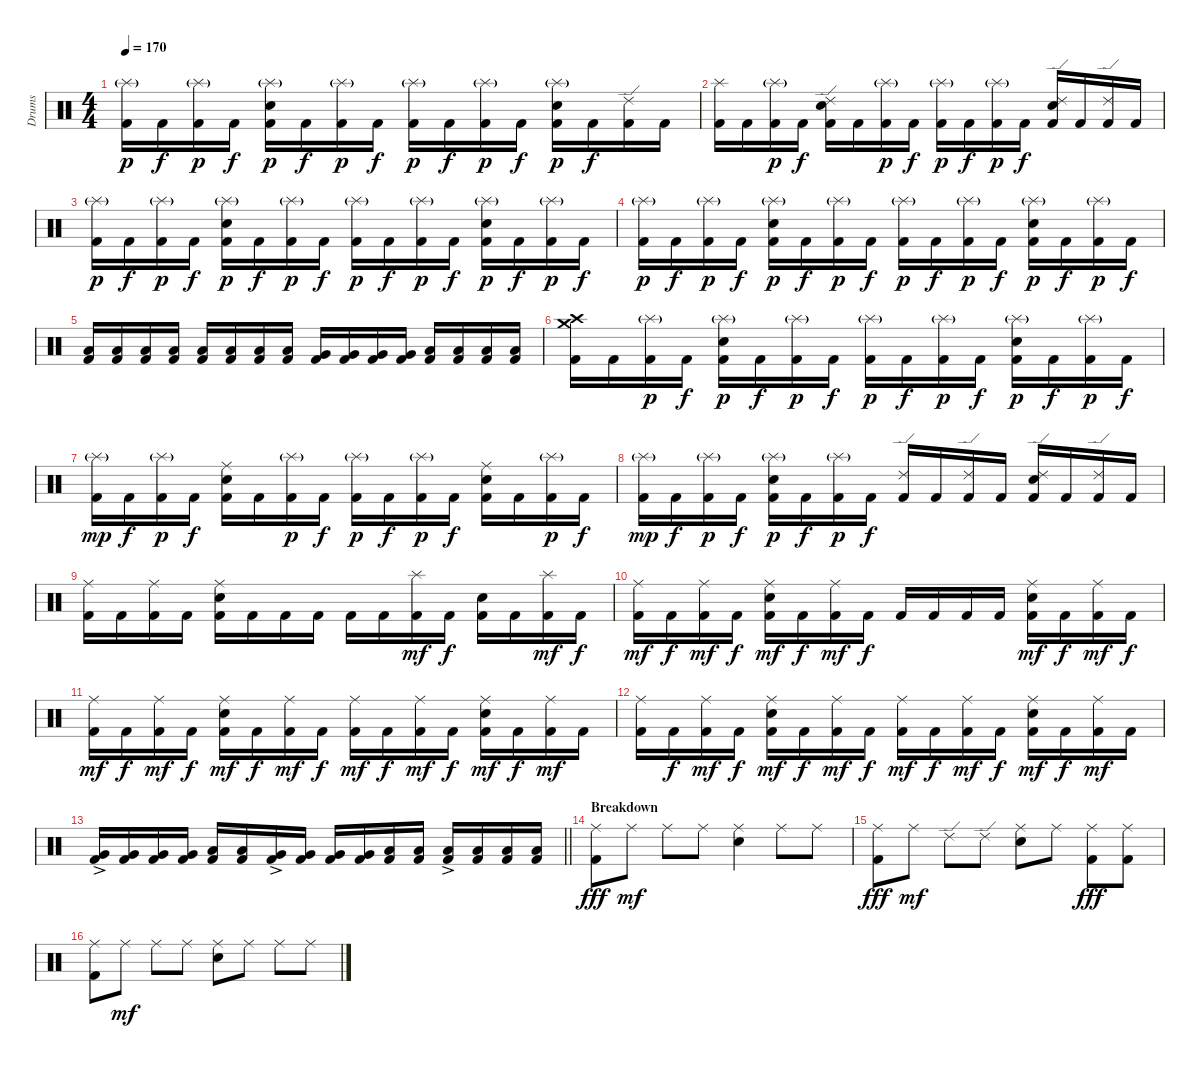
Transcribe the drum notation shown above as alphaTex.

\track ("Drums" "Drums") {instrument percussion}
\staff {score}
\articulation defaults
\ts (4 4)
\tempo 170
\clef neutral
\ks c
("Splash (hit)"{g} "Kick (hit) 2").16{dy p} "Kick (hit) 2".16{dy f} ("Splash (hit)"{g} "Kick (hit) 2").16{dy p} "Kick (hit) 2".16{dy f} ("Splash (hit)"{g} "Snare (hit) 2" "Kick (hit) 2").16{dy p} "Kick (hit) 2".16{dy f} ("Splash (hit)"{g} "Kick (hit) 2").16{dy p} "Kick (hit) 2".16{dy f} ("Splash (hit)"{g} "Kick (hit) 2").16{dy p} "Kick (hit) 2".16{dy f} ("Splash (hit)"{g} "Kick (hit) 2").16{dy p} "Kick (hit) 2".16{dy f} ("Splash (hit)"{g} "Snare (hit) 2" "Kick (hit) 2").16{dy p} "Kick (hit) 2".16{dy f} ("Ride (edge) 2" "Kick (hit) 2").16 "Kick (hit) 2".16 |
("Splash (hit)" "Kick (hit) 2").16 "Kick (hit) 2".16 ("Splash (hit)"{g} "Kick (hit) 2").16{dy p} "Kick (hit) 2".16{dy f} ("Ride (edge) 2" "Snare (hit) 2" "Kick (hit) 2").16 "Kick (hit) 2".16 ("Splash (hit)"{g} "Kick (hit) 2").16{dy p} "Kick (hit) 2".16{dy f} ("Splash (hit)"{g} "Kick (hit) 2").16{dy p} "Kick (hit) 2".16{dy f} ("Splash (hit)"{g} "Kick (hit) 2").16{dy p} "Kick (hit) 2".16{dy f} ("Ride (edge) 2" "Snare (hit) 2" "Kick (hit) 2").16 "Kick (hit) 2".16 ("Ride (edge) 2" "Kick (hit) 2").16 "Kick (hit) 2".16 |
("Splash (hit)"{g} "Kick (hit) 2").16{dy p} "Kick (hit) 2".16{dy f} ("Splash (hit)"{g} "Kick (hit) 2").16{dy p} "Kick (hit) 2".16{dy f} ("Splash (hit)"{g} "Snare (hit) 2" "Kick (hit) 2").16{dy p} "Kick (hit) 2".16{dy f} ("Splash (hit)"{g} "Kick (hit) 2").16{dy p} "Kick (hit) 2".16{dy f} ("Splash (hit)"{g} "Kick (hit) 2").16{dy p} "Kick (hit) 2".16{dy f} ("Splash (hit)"{g} "Kick (hit) 2").16{dy p} "Kick (hit) 2".16{dy f} ("Splash (hit)"{g} "Snare (hit) 2" "Kick (hit) 2").16{dy p} "Kick (hit) 2".16{dy f} ("Splash (hit)"{g} "Kick (hit) 2").16{dy p} "Kick (hit) 2".16{dy f} |
("Splash (hit)"{g} "Kick (hit) 2").16{dy p} "Kick (hit) 2".16{dy f} ("Splash (hit)"{g} "Kick (hit) 2").16{dy p} "Kick (hit) 2".16{dy f} ("Splash (hit)"{g} "Snare (hit) 2" "Kick (hit) 2").16{dy p} "Kick (hit) 2".16{dy f} ("Splash (hit)"{g} "Kick (hit) 2").16{dy p} "Kick (hit) 2".16{dy f} ("Splash (hit)"{g} "Kick (hit) 2").16{dy p} "Kick (hit) 2".16{dy f} ("Splash (hit)"{g} "Kick (hit) 2").16{dy p} "Kick (hit) 2".16{dy f} ("Splash (hit)"{g} "Snare (hit) 2" "Kick (hit) 2").16{dy p} "Kick (hit) 2".16{dy f} ("Splash (hit)"{g} "Kick (hit) 2").16{dy p} "Kick (hit) 2".16{dy f} |
("Low Tom (hit)" "Kick (hit) 2").16 ("Low Tom (hit)" "Kick (hit) 2").16 ("Low Tom (hit)" "Kick (hit) 2").16 ("Low Tom (hit)" "Kick (hit) 2").16 ("Low Tom (hit)" "Kick (hit) 2").16 ("Low Tom (hit)" "Kick (hit) 2").16 ("Low Tom (hit)" "Kick (hit) 2").16 ("Low Tom (hit)" "Kick (hit) 2").16 ("Very Low Tom (hit)" "Kick (hit) 2").16 ("Very Low Tom (hit)" "Kick (hit) 2").16 ("Very Low Tom (hit)" "Kick (hit) 2").16 ("Very Low Tom (hit)" "Kick (hit) 2").16 ("Low Floor Tom (hit)" "Kick (hit) 2").16 ("Low Floor Tom (hit)" "Kick (hit) 2").16 ("Low Floor Tom (hit)" "Kick (hit) 2").16 ("Low Floor Tom (hit)" "Kick (hit) 2").16 |
("Crash medium (hit)" "Crash high (hit)" "Kick (hit) 2").16 "Kick (hit) 2".16 ("Splash (hit)"{g} "Kick (hit) 2").16{dy p} "Kick (hit) 2".16{dy f} ("Splash (hit)"{g} "Snare (hit) 2" "Kick (hit) 2").16{dy p} "Kick (hit) 2".16{dy f} ("Splash (hit)"{g} "Kick (hit) 2").16{dy p} "Kick (hit) 2".16{dy f} ("Splash (hit)"{g} "Kick (hit) 2").16{dy p} "Kick (hit) 2".16{dy f} ("Splash (hit)"{g} "Kick (hit) 2").16{dy p} "Kick (hit) 2".16{dy f} ("Splash (hit)"{g} "Snare (hit) 2" "Kick (hit) 2").16{dy p} "Kick (hit) 2".16{dy f} ("Splash (hit)"{g} "Kick (hit) 2").16{dy p} "Kick (hit) 2".16{dy f} |
("Splash (hit)"{g} "Kick (hit) 2").16{dy mp} "Kick (hit) 2".16{dy f} ("Splash (hit)"{g} "Kick (hit) 2").16{dy p} "Kick (hit) 2".16{dy f} ("Ride (middle)" "Snare (hit) 2" "Kick (hit) 2").16 "Kick (hit) 2".16 ("Splash (hit)"{g} "Kick (hit) 2").16{dy p} "Kick (hit) 2".16{dy f} ("Splash (hit)"{g} "Kick (hit) 2").16{dy p} "Kick (hit) 2".16{dy f} ("Splash (hit)"{g} "Kick (hit) 2").16{dy p} "Kick (hit) 2".16{dy f} ("Ride (middle)" "Snare (hit) 2" "Kick (hit) 2").16 "Kick (hit) 2".16 ("Splash (hit)"{g} "Kick (hit) 2").16{dy p} "Kick (hit) 2".16{dy f} |
("Splash (hit)"{g} "Kick (hit) 2").16{dy mp} "Kick (hit) 2".16{dy f} ("Splash (hit)"{g} "Kick (hit) 2").16{dy p} "Kick (hit) 2".16{dy f} ("Splash (hit)"{g} "Snare (hit) 2" "Kick (hit) 2").16{dy p} "Kick (hit) 2".16{dy f} ("Splash (hit)"{g} "Kick (hit) 2").16{dy p} "Kick (hit) 2".16{dy f} ("Ride (edge) 2" "Kick (hit) 2").16 "Kick (hit) 2".16 ("Ride (edge) 2" "Kick (hit) 2").16 "Kick (hit) 2".16 ("Ride (edge) 2" "Snare (hit) 2" "Kick (hit) 2").16 "Kick (hit) 2".16 ("Ride (edge) 2" "Kick (hit) 2").16 "Kick (hit) 2".16 |
("Ride (middle)" "Kick (hit) 2").16 "Kick (hit) 2".16 ("Ride (middle)" "Kick (hit) 2").16 "Kick (hit) 2".16 ("Ride (middle)" "Snare (hit) 2" "Kick (hit) 2").16 "Kick (hit) 2".16 "Kick (hit) 2".16 "Kick (hit) 2".16 "Kick (hit) 2".16 "Kick (hit) 2".16 ("Splash (hit)" "Kick (hit) 2").16{dy mf} "Kick (hit) 2".16{dy f} ("Snare (hit) 2" "Kick (hit) 2").16 "Kick (hit) 2".16 ("Splash (hit)" "Kick (hit) 2").16{dy mf} "Kick (hit) 2".16{dy f} |
("Ride (middle)" "Kick (hit) 2").16{dy mf} "Kick (hit) 2".16{dy f} ("Ride (middle)" "Kick (hit) 2").16{dy mf} "Kick (hit) 2".16{dy f} ("Ride (middle)" "Snare (hit) 2" "Kick (hit) 2").16{dy mf} "Kick (hit) 2".16{dy f} ("Ride (middle)" "Kick (hit) 2").16{dy mf} "Kick (hit) 2".16{dy f} "Kick (hit) 2".16 "Kick (hit) 2".16 "Kick (hit) 2".16 "Kick (hit) 2".16 ("Ride (middle)" "Snare (hit) 2" "Kick (hit) 2").16{dy mf} "Kick (hit) 2".16{dy f} ("Ride (middle)" "Kick (hit) 2").16{dy mf} "Kick (hit) 2".16{dy f} |
("Ride (middle)" "Kick (hit) 2").16{dy mf} "Kick (hit) 2".16{dy f} ("Ride (middle)" "Kick (hit) 2").16{dy mf} "Kick (hit) 2".16{dy f} ("Ride (middle)" "Snare (hit) 2" "Kick (hit) 2").16{dy mf} "Kick (hit) 2".16{dy f} ("Ride (middle)" "Kick (hit) 2").16{dy mf} "Kick (hit) 2".16{dy f} ("Ride (middle)" "Kick (hit) 2").16{dy mf} "Kick (hit) 2".16{dy f} ("Ride (middle)" "Kick (hit) 2").16{dy mf} "Kick (hit) 2".16{dy f} ("Ride (middle)" "Snare (hit) 2" "Kick (hit) 2").16{dy mf} "Kick (hit) 2".16{dy f} ("Ride (middle)" "Kick (hit) 2").16{dy mf} "Kick (hit) 2".16 |
("Ride (middle)" "Kick (hit) 2").16 "Kick (hit) 2".16{dy f} ("Ride (middle)" "Kick (hit) 2").16{dy mf} "Kick (hit) 2".16{dy f} ("Ride (middle)" "Snare (hit) 2" "Kick (hit) 2").16{dy mf} "Kick (hit) 2".16{dy f} ("Ride (middle)" "Kick (hit) 2").16{dy mf} "Kick (hit) 2".16{dy f} ("Ride (middle)" "Kick (hit) 2").16{dy mf} "Kick (hit) 2".16{dy f} ("Ride (middle)" "Kick (hit) 2").16{dy mf} "Kick (hit) 2".16{dy f} ("Ride (middle)" "Snare (hit) 2" "Kick (hit) 2").16{dy mf} "Kick (hit) 2".16{dy f} ("Ride (middle)" "Kick (hit) 2").16{dy mf} "Kick (hit) 2".16 |
\barLineRight lightlight
("Very Low Tom (hit)"{ac} "Kick (hit) 2").16 ("Very Low Tom (hit)" "Kick (hit) 2").16 ("Very Low Tom (hit)" "Kick (hit) 2").16 ("Very Low Tom (hit)" "Kick (hit) 2").16 ("Low Floor Tom (hit)" "Kick (hit) 2").16 ("Low Floor Tom (hit)" "Kick (hit) 2").16 ("Very Low Tom (hit)"{ac} "Kick (hit) 2").16 ("Very Low Tom (hit)" "Kick (hit) 2").16 ("Very Low Tom (hit)" "Kick (hit) 2").16 ("Very Low Tom (hit)" "Kick (hit) 2").16 ("Low Floor Tom (hit)" "Kick (hit) 2").16 ("Low Floor Tom (hit)" "Kick (hit) 2").16 ("Low Floor Tom (hit)"{ac} "Kick (hit) 2").16 ("Low Floor Tom (hit)" "Kick (hit) 2").16 ("Low Floor Tom (hit)" "Kick (hit) 2").16 ("Low Floor Tom (hit)" "Kick (hit) 2").16 |
\section ("" "Breakdown")
("Ride (middle)" "Kick (hit) 2").8{dy fff} "Ride (middle)".8{dy mf} "Ride (middle)".8 "Ride (middle)".8 ("Ride (middle)" "Snare (hit) 2").4 "Ride (middle)".8 "Ride (middle)".8 |
("Ride (middle)" "Kick (hit) 2").8{dy fff} "Ride (middle)".8{dy mf} "Ride (edge) 2".8 "Ride (edge) 2".8 ("Ride (middle)" "Snare (hit) 2").8 "Ride (middle)".8 ("Ride (middle)" "Kick (hit) 2").8{dy fff} ("Ride (middle)" "Kick (hit) 2").8 |
("Ride (middle)" "Kick (hit) 2").8 "Ride (middle)".8{dy mf} "Ride (middle)".8 "Ride (middle)".8 ("Ride (middle)" "Snare (hit) 2").8 "Ride (middle)".8 "Ride (middle)".8 "Ride (middle)".8
